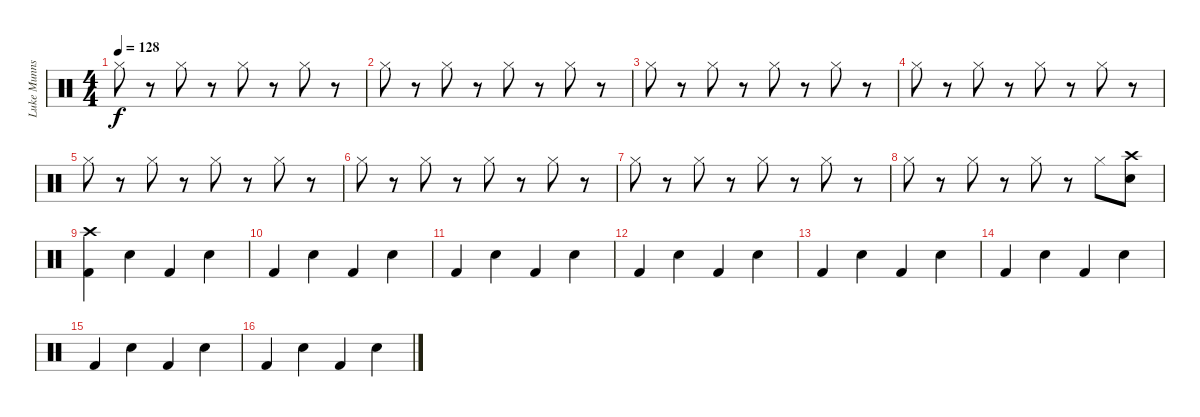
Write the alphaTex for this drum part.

\track ("Luke Munns" "Luke Munns") {instrument percussion}
\staff {score}
\articulation defaults
\ts (4 4)
\tempo 128
\clef neutral
\ks c "Hi-Hat (closed)".8{dy f}
r.8 "Hi-Hat (closed)".8 r.8 "Hi-Hat (closed)".8 r.8 "Hi-Hat (closed)".8 r.8 |
"Hi-Hat (closed)".8 r.8 "Hi-Hat (closed)".8 r.8 "Hi-Hat (closed)".8 r.8 "Hi-Hat (closed)".8 r.8 |
"Hi-Hat (closed)".8 r.8 "Hi-Hat (closed)".8 r.8 "Hi-Hat (closed)".8 r.8 "Hi-Hat (closed)".8 r.8 |
"Hi-Hat (closed)".8 r.8 "Hi-Hat (closed)".8 r.8 "Hi-Hat (closed)".8 r.8 "Hi-Hat (closed)".8 r.8 |
"Hi-Hat (closed)".8 r.8 "Hi-Hat (closed)".8 r.8 "Hi-Hat (closed)".8 r.8 "Hi-Hat (closed)".8 r.8 |
"Hi-Hat (closed)".8 r.8 "Hi-Hat (closed)".8 r.8 "Hi-Hat (closed)".8 r.8 "Hi-Hat (closed)".8 r.8 |
"Hi-Hat (closed)".8 r.8 "Hi-Hat (closed)".8 r.8 "Hi-Hat (closed)".8 r.8 "Hi-Hat (closed)".8 r.8 |
"Hi-Hat (closed)".8 r.8 "Hi-Hat (closed)".8 r.8 "Hi-Hat (closed)".8 r.8 "Hi-Hat (closed)".8 ("Electric Snare (hit)" "Crash high (hit)").8 |
("Kick (hit) 2" "Crash high (hit)").4 "Electric Snare (hit)".4 "Kick (hit) 2".4 "Electric Snare (hit)".4 |
"Kick (hit) 2".4 "Electric Snare (hit)".4 "Kick (hit) 2".4 "Electric Snare (hit)".4 |
"Kick (hit) 2".4 "Electric Snare (hit)".4 "Kick (hit) 2".4 "Electric Snare (hit)".4 |
"Kick (hit) 2".4 "Electric Snare (hit)".4 "Kick (hit) 2".4 "Electric Snare (hit)".4 |
"Kick (hit) 2".4 "Electric Snare (hit)".4 "Kick (hit) 2".4 "Electric Snare (hit)".4 |
"Kick (hit) 2".4 "Electric Snare (hit)".4 "Kick (hit) 2".4 "Electric Snare (hit)".4 |
"Kick (hit) 2".4 "Electric Snare (hit)".4 "Kick (hit) 2".4 "Electric Snare (hit)".4 |
"Kick (hit) 2".4 "Electric Snare (hit)".4 "Kick (hit) 2".4 "Electric Snare (hit)".4
